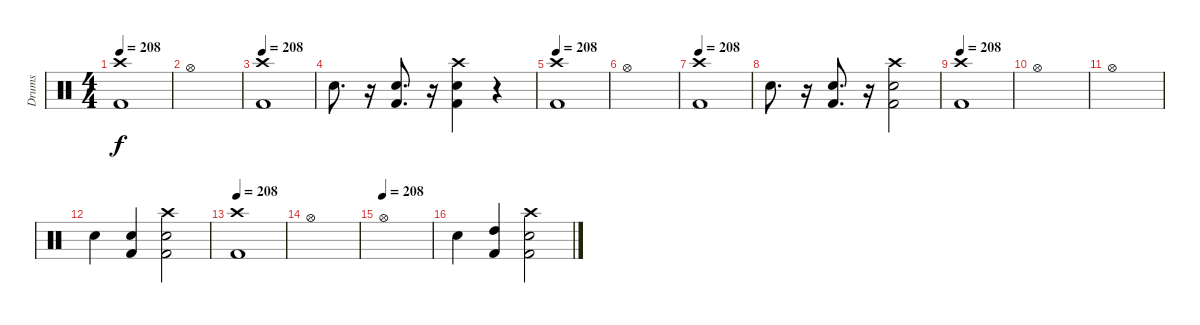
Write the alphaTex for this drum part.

\track ("Drums" "Drums") {instrument percussion}
\staff {score}
\articulation defaults
\ts (4 4)
\tempo 208
\clef neutral
\ks c
("Crash high (hit)" "Kick (hit) 2").1{dy f} |
"Hi-Hat (open)".1 |
\tempo 208
("Crash high (hit)" "Kick (hit) 2").1 |
"Electric Snare (hit)".8{d} r.16 ("Electric Snare (hit)" "Kick (hit) 2").8{d} r.16 ("Crash high (hit)" "Electric Snare (hit)" "Kick (hit) 2").4 r.4 |
\tempo 208
("Crash high (hit)" "Kick (hit) 2").1 |
"Hi-Hat (open)".1 |
\tempo 208
("Crash high (hit)" "Kick (hit) 2").1 |
"Electric Snare (hit)".8{d} r.16 ("Electric Snare (hit)" "Kick (hit) 2").8{d} r.16 ("Crash high (hit)" "Electric Snare (hit)" "Kick (hit) 2").2 |
\tempo 208
("Crash high (hit)" "Kick (hit) 2").1 |
"Hi-Hat (open)".1 |
"Hi-Hat (open)".1 |
"Electric Snare (hit)".4 ("Electric Snare (hit)" "Kick (hit) 2").4 ("Crash high (hit)" "Electric Snare (hit)" "Kick (hit) 2").2 |
\tempo 208
("Crash high (hit)" "Kick (hit) 2").1 |
"Hi-Hat (open)".1 |
\tempo (208)
"Hi-Hat (open)".1 |
"Electric Snare (hit)".4 ("High Tom (hit)" "Kick (hit) 2").4 ("Crash high (hit)" "Electric Snare (hit)" "Kick (hit) 2").2
